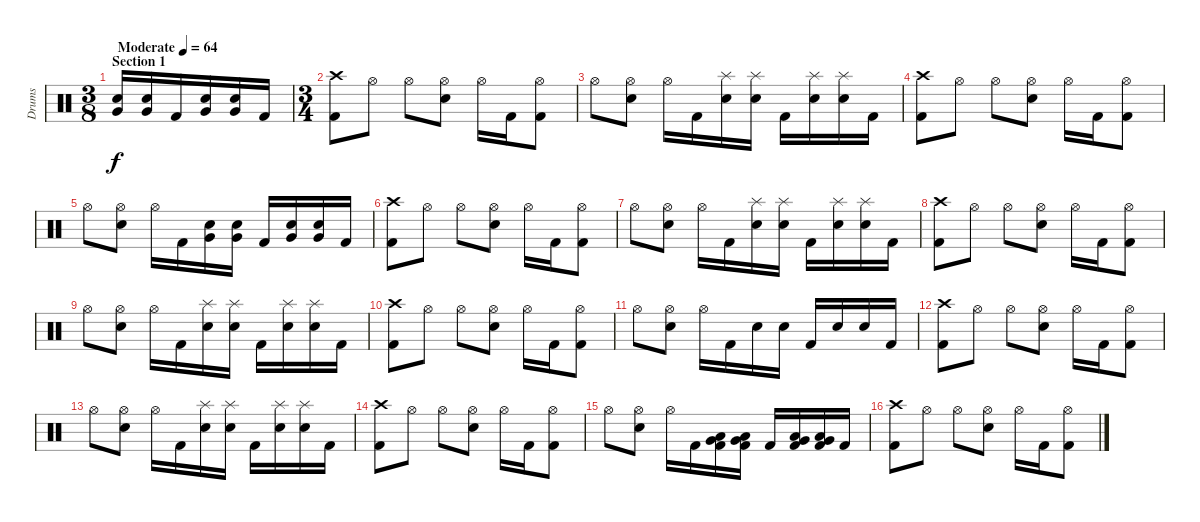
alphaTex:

\track ("Drums" "Drums") {instrument percussion}
\staff {score}
\articulation defaults
\ts (3 8)
\section ("" "Section 1")
\tempo (64 "Moderate")
\clef neutral
\ks c
("Electric Snare (hit)" "Very Low Tom (hit)").16{dy f} ("Electric Snare (hit)" "Very Low Tom (hit)").16 "Kick (hit) 2".16 ("Electric Snare (hit)" "Very Low Tom (hit)").16 ("Electric Snare (hit)" "Very Low Tom (hit)").16 "Kick (hit) 2".16 |
\ts (3 4)
("Crash high (hit)" "Kick (hit) 2").8 "Hi-Hat (open)".8 "Hi-Hat (open)".8 ("Hi-Hat (open)" "Electric Snare (hit)").8 "Hi-Hat (open)".16 "Kick (hit) 2".16 ("Hi-Hat (open)" "Kick (hit) 2").8 |
"Hi-Hat (open)".8 ("Hi-Hat (open)" "Electric Snare (hit)").8 "Hi-Hat (open)".16 "Kick (hit) 2".16 ("Splash (hit)" "Electric Snare (hit)").16 ("Splash (hit)" "Electric Snare (hit)").16 "Kick (hit) 2".16 ("Splash (hit)" "Electric Snare (hit)").16 ("Splash (hit)" "Electric Snare (hit)").16 "Kick (hit) 2".16 |
("Crash high (hit)" "Kick (hit) 2").8 "Hi-Hat (open)".8 "Hi-Hat (open)".8 ("Hi-Hat (open)" "Electric Snare (hit)").8 "Hi-Hat (open)".16 "Kick (hit) 2".16 ("Hi-Hat (open)" "Kick (hit) 2").8 |
"Hi-Hat (open)".8 ("Hi-Hat (open)" "Electric Snare (hit)").8 "Hi-Hat (open)".16 "Kick (hit) 2".16 ("Electric Snare (hit)" "Very Low Tom (hit)").16 ("Electric Snare (hit)" "Very Low Tom (hit)").16 "Kick (hit) 2".16 ("Electric Snare (hit)" "Very Low Tom (hit)").16 ("Electric Snare (hit)" "Very Low Tom (hit)").16 "Kick (hit) 2".16 |
("Crash high (hit)" "Kick (hit) 2").8 "Hi-Hat (open)".8 "Hi-Hat (open)".8 ("Hi-Hat (open)" "Electric Snare (hit)").8 "Hi-Hat (open)".16 "Kick (hit) 2".16 ("Hi-Hat (open)" "Kick (hit) 2").8 |
"Hi-Hat (open)".8 ("Hi-Hat (open)" "Electric Snare (hit)").8 "Hi-Hat (open)".16 "Kick (hit) 2".16 ("Splash (hit)" "Electric Snare (hit)").16 ("Splash (hit)" "Electric Snare (hit)").16 "Kick (hit) 2".16 ("Splash (hit)" "Electric Snare (hit)").16 ("Splash (hit)" "Electric Snare (hit)").16 "Kick (hit) 2".16 |
("Crash high (hit)" "Kick (hit) 2").8 "Hi-Hat (open)".8 "Hi-Hat (open)".8 ("Hi-Hat (open)" "Electric Snare (hit)").8 "Hi-Hat (open)".16 "Kick (hit) 2".16 ("Hi-Hat (open)" "Kick (hit) 2").8 |
"Hi-Hat (open)".8 ("Hi-Hat (open)" "Electric Snare (hit)").8 "Hi-Hat (open)".16 "Kick (hit) 2".16 ("Splash (hit)" "Electric Snare (hit)").16 ("Splash (hit)" "Electric Snare (hit)").16 "Kick (hit) 2".16 ("Splash (hit)" "Electric Snare (hit)").16 ("Splash (hit)" "Electric Snare (hit)").16 "Kick (hit) 2".16 |
("Crash high (hit)" "Kick (hit) 2").8 "Hi-Hat (open)".8 "Hi-Hat (open)".8 ("Hi-Hat (open)" "Electric Snare (hit)").8 "Hi-Hat (open)".16 "Kick (hit) 2".16 ("Hi-Hat (open)" "Kick (hit) 2").8 |
"Hi-Hat (open)".8 ("Hi-Hat (open)" "Electric Snare (hit)").8 "Hi-Hat (open)".16 "Kick (hit) 2".16 "Electric Snare (hit)".16 "Electric Snare (hit)".16 "Kick (hit) 2".16 "Electric Snare (hit)".16 "Electric Snare (hit)".16 "Kick (hit) 2".16 |
("Crash high (hit)" "Kick (hit) 2").8 "Hi-Hat (open)".8 "Hi-Hat (open)".8 ("Hi-Hat (open)" "Electric Snare (hit)").8 "Hi-Hat (open)".16 "Kick (hit) 2".16 ("Hi-Hat (open)" "Kick (hit) 2").8 |
"Hi-Hat (open)".8 ("Hi-Hat (open)" "Electric Snare (hit)").8 "Hi-Hat (open)".16 "Kick (hit) 2".16 ("Splash (hit)" "Electric Snare (hit)").16 ("Splash (hit)" "Electric Snare (hit)").16 "Kick (hit) 2".16 ("Splash (hit)" "Electric Snare (hit)").16 ("Splash (hit)" "Electric Snare (hit)").16 "Kick (hit) 2".16 |
("Crash high (hit)" "Kick (hit) 2").8 "Hi-Hat (open)".8 "Hi-Hat (open)".8 ("Hi-Hat (open)" "Electric Snare (hit)").8 "Hi-Hat (open)".16 "Kick (hit) 2".16 ("Hi-Hat (open)" "Kick (hit) 2").8 |
"Hi-Hat (open)".8 ("Hi-Hat (open)" "Electric Snare (hit)").8 "Hi-Hat (open)".16 "Kick (hit) 2".16 ("Low Floor Tom (hit)" "Very Low Tom (hit)" "Kick (hit) 2").16{bd 60} ("Low Floor Tom (hit)" "Very Low Tom (hit)" "Kick (hit) 2").16{bd 60} "Kick (hit) 2".16 ("Low Floor Tom (hit)" "Very Low Tom (hit)" "Kick (hit) 2").16{bd 60} ("Low Floor Tom (hit)" "Very Low Tom (hit)" "Kick (hit) 2").16{bd 60} "Kick (hit) 2".16 |
("Crash high (hit)" "Kick (hit) 2").8 "Hi-Hat (open)".8 "Hi-Hat (open)".8 ("Hi-Hat (open)" "Electric Snare (hit)").8 "Hi-Hat (open)".16 "Kick (hit) 2".16 ("Hi-Hat (open)" "Kick (hit) 2").8
